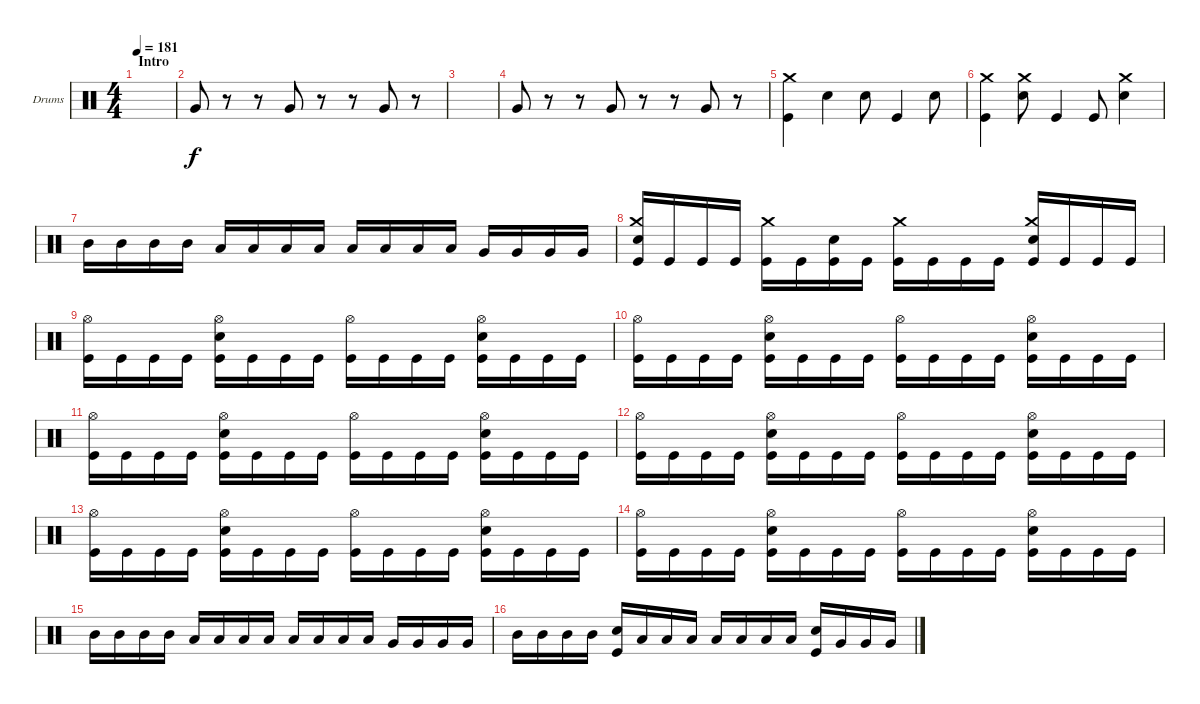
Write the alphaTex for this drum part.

\bracketExtendMode groupsimilarinstruments
\firstSystemTrackNameOrientation horizontal
\otherSystemsTrackNameOrientation horizontal
\track ("Drumkit" "Drums") {solo instrument percussion}
\staff {score}
\articulation defaults
\ts (4 4)
\beaming (8 2 2 2 2)
\section ("" "Intro")
\tempo 181
\clef neutral
\scale
0.472222
\ks c
|
\scale
0.263889 "Very Low Tom (hit)".8 r.8 r.8 "Very Low Tom (hit)".8 r.8 r.8 "Very Low Tom (hit)".8 r.8 |
\scale
0.263889 |
\scale
0.333333 "Very Low Tom (hit)".8 r.8 r.8 "Very Low Tom (hit)".8 r.8 r.8 "Very Low Tom (hit)".8 r.8 |
\scale
0.333333 ("Kick (hit)" "Crash medium (hit)").4 "Snare (hit) 2".4 "Snare (hit) 2".8 "Kick (hit)".4 "Snare (hit) 2".8 |
\scale
0.333333 ("Kick (hit)" "Crash medium (hit)").4 ("Snare (hit) 2" "Crash medium (hit)").8 "Kick (hit)".4 "Kick (hit)".8 ("Snare (hit) 2" "Crash medium (hit)").4 |
\scale
0.333333 "Mid Tom (hit)".16 "Mid Tom (hit)".16 "Mid Tom (hit)".16 "Mid Tom (hit)".16 "Low Tom (hit)".16 "Low Tom (hit)".16 "Low Tom (hit)".16 "Low Tom (hit)".16 "Low Tom (hit)".16 "Low Tom (hit)".16 "Low Tom (hit)".16 "Low Tom (hit)".16 "Very Low Tom (hit)".16 "Very Low Tom (hit)".16 "Very Low Tom (hit)".16 "Very Low Tom (hit)".16 |
\scale
0.333333 ("Kick (hit)" "Snare (hit) 2" "Crash medium (hit)").16 "Kick (hit)".16 "Kick (hit)".16 "Kick (hit)".16 ("Kick (hit)" "Crash medium (hit)").16 "Kick (hit)".16 ("Kick (hit)" "Snare (hit) 2").16 "Kick (hit)".16 ("Kick (hit)" "Crash medium (hit)").16 "Kick (hit)".16 "Kick (hit)".16 "Kick (hit)".16 ("Kick (hit)" "Snare (hit) 2" "Crash medium (hit)").16 "Kick (hit)".16 "Kick (hit)".16 "Kick (hit)".16 |
\scale
0.333333 ("Kick (hit)" "Hi-Hat (open)").16 "Kick (hit)".16 "Kick (hit)".16 "Kick (hit)".16 ("Kick (hit)" "Snare (hit) 2" "Hi-Hat (open)").16 "Kick (hit)".16 "Kick (hit)".16 "Kick (hit)".16 ("Kick (hit)" "Hi-Hat (open)").16 "Kick (hit)".16 "Kick (hit)".16 "Kick (hit)".16 ("Kick (hit)" "Hi-Hat (open)" "Snare (hit) 2").16 "Kick (hit)".16 "Kick (hit)".16 "Kick (hit)".16 |
\scale
0.333333 ("Kick (hit)" "Hi-Hat (open)").16 "Kick (hit)".16 "Kick (hit)".16 "Kick (hit)".16 ("Kick (hit)" "Snare (hit) 2" "Hi-Hat (open)").16 "Kick (hit)".16 "Kick (hit)".16 "Kick (hit)".16 ("Kick (hit)" "Hi-Hat (open)").16 "Kick (hit)".16 "Kick (hit)".16 "Kick (hit)".16 ("Kick (hit)" "Hi-Hat (open)" "Snare (hit) 2").16 "Kick (hit)".16 "Kick (hit)".16 "Kick (hit)".16 |
\scale
0.333333 ("Kick (hit)" "Hi-Hat (open)").16 "Kick (hit)".16 "Kick (hit)".16 "Kick (hit)".16 ("Kick (hit)" "Snare (hit) 2" "Hi-Hat (open)").16 "Kick (hit)".16 "Kick (hit)".16 "Kick (hit)".16 ("Kick (hit)" "Hi-Hat (open)").16 "Kick (hit)".16 "Kick (hit)".16 "Kick (hit)".16 ("Kick (hit)" "Hi-Hat (open)" "Snare (hit) 2").16 "Kick (hit)".16 "Kick (hit)".16 "Kick (hit)".16 |
\scale
0.333333 ("Kick (hit)" "Hi-Hat (open)").16 "Kick (hit)".16 "Kick (hit)".16 "Kick (hit)".16 ("Kick (hit)" "Snare (hit) 2" "Hi-Hat (open)").16 "Kick (hit)".16 "Kick (hit)".16 "Kick (hit)".16 ("Kick (hit)" "Hi-Hat (open)").16 "Kick (hit)".16 "Kick (hit)".16 "Kick (hit)".16 ("Kick (hit)" "Hi-Hat (open)" "Snare (hit) 2").16 "Kick (hit)".16 "Kick (hit)".16 "Kick (hit)".16 |
\scale
0.333333 ("Kick (hit)" "Hi-Hat (open)").16 "Kick (hit)".16 "Kick (hit)".16 "Kick (hit)".16 ("Kick (hit)" "Snare (hit) 2" "Hi-Hat (open)").16 "Kick (hit)".16 "Kick (hit)".16 "Kick (hit)".16 ("Kick (hit)" "Hi-Hat (open)").16 "Kick (hit)".16 "Kick (hit)".16 "Kick (hit)".16 ("Kick (hit)" "Hi-Hat (open)" "Snare (hit) 2").16 "Kick (hit)".16 "Kick (hit)".16 "Kick (hit)".16 |
\scale
0.333333 ("Kick (hit)" "Hi-Hat (open)").16 "Kick (hit)".16 "Kick (hit)".16 "Kick (hit)".16 ("Kick (hit)" "Snare (hit) 2" "Hi-Hat (open)").16 "Kick (hit)".16 "Kick (hit)".16 "Kick (hit)".16 ("Kick (hit)" "Hi-Hat (open)").16 "Kick (hit)".16 "Kick (hit)".16 "Kick (hit)".16 ("Kick (hit)" "Hi-Hat (open)" "Snare (hit) 2").16 "Kick (hit)".16 "Kick (hit)".16 "Kick (hit)".16 |
\scale
0.333333 "Mid Tom (hit)".16 "Mid Tom (hit)".16 "Mid Tom (hit)".16 "Mid Tom (hit)".16 "Low Tom (hit)".16 "Low Tom (hit)".16 "Low Tom (hit)".16 "Low Tom (hit)".16 "Low Tom (hit)".16 "Low Tom (hit)".16 "Low Tom (hit)".16 "Low Tom (hit)".16 "Very Low Tom (hit)".16 "Very Low Tom (hit)".16 "Very Low Tom (hit)".16 "Very Low Tom (hit)".16 |
\scale
0.333333 "Mid Tom (hit)".16 "Mid Tom (hit)".16 "Mid Tom (hit)".16 "Mid Tom (hit)".16 ("Kick (hit)" "Snare (hit) 2").16 "Low Tom (hit)".16 "Low Tom (hit)".16 "Low Tom (hit)".16 "Low Tom (hit)".16 "Low Tom (hit)".16 "Low Tom (hit)".16 "Low Tom (hit)".16 ("Kick (hit)" "Snare (hit) 2").16 "Very Low Tom (hit)".16 "Very Low Tom (hit)".16 "Very Low Tom (hit)".16
